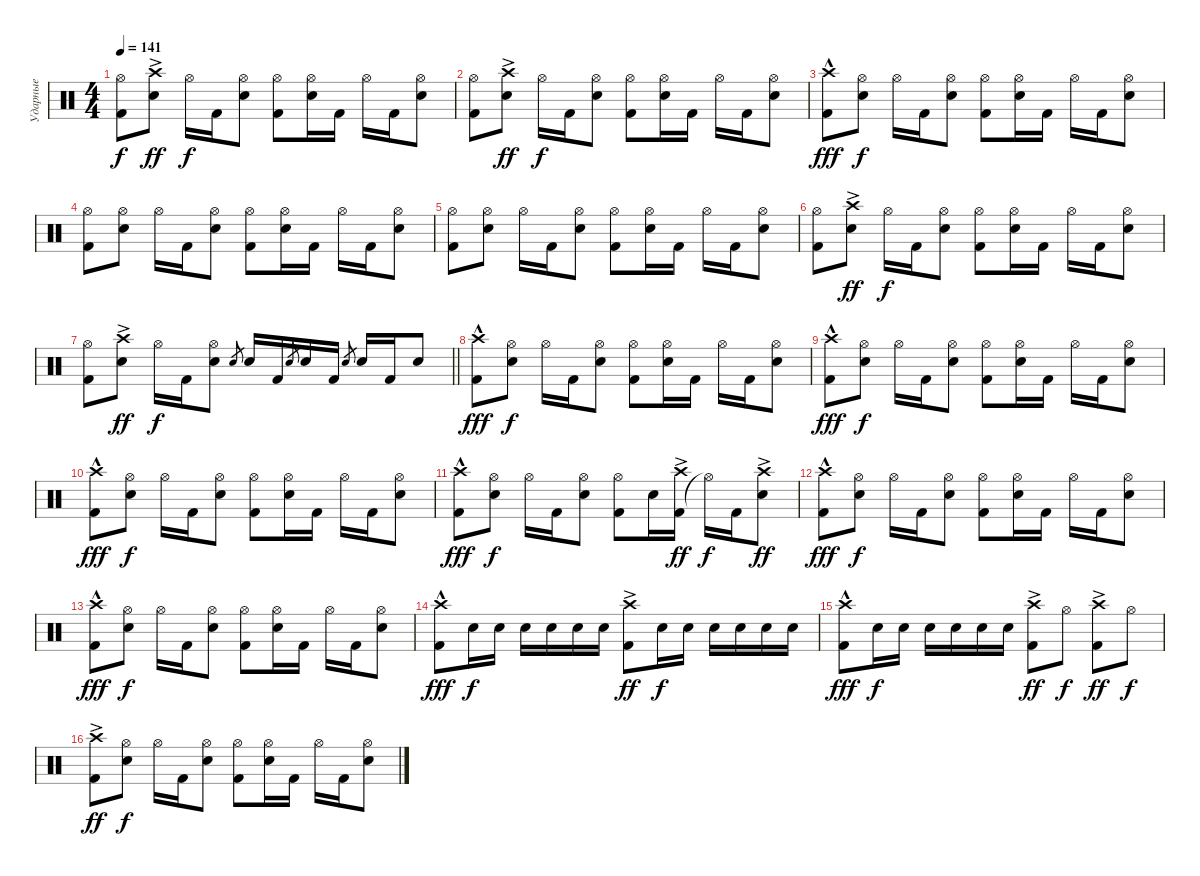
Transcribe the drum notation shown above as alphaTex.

\track ("Ударные" "Ударные") {instrument percussion}
\staff
\articulation defaults
\ts (4 4)
\tempo 141
\clef neutral
\ks c
("Kick (hit) 2" "Hi-Hat (open)").8{dy f} ("Snare (hit) 2" "Crash high (hit)"{ac}).8{dy ff} "Hi-Hat (open)".16{dy f} "Kick (hit) 2".16 ("Snare (hit) 2" "Hi-Hat (open)").8 ("Kick (hit) 2" "Hi-Hat (open)").8 ("Snare (hit) 2" "Hi-Hat (open)").16 "Kick (hit) 2".16 "Hi-Hat (open)".16 "Kick (hit) 2".16 ("Snare (hit) 2" "Hi-Hat (open)").8 |
("Kick (hit) 2" "Hi-Hat (open)").8 ("Snare (hit) 2" "Crash high (hit)"{ac}).8{dy ff} "Hi-Hat (open)".16{dy f} "Kick (hit) 2".16 ("Snare (hit) 2" "Hi-Hat (open)").8 ("Kick (hit) 2" "Hi-Hat (open)").8 ("Snare (hit) 2" "Hi-Hat (open)").16 "Kick (hit) 2".16 "Hi-Hat (open)".16 "Kick (hit) 2".16 ("Snare (hit) 2" "Hi-Hat (open)").8 |
("Kick (hit) 2" "Crash high (hit)"{hac}).8{dy fff} ("Snare (hit) 2" "Hi-Hat (open)").8{dy f} "Hi-Hat (open)".16 "Kick (hit) 2".16 ("Snare (hit) 2" "Hi-Hat (open)").8 ("Kick (hit) 2" "Hi-Hat (open)").8 ("Snare (hit) 2" "Hi-Hat (open)").16 "Kick (hit) 2".16 "Hi-Hat (open)".16 "Kick (hit) 2".16 ("Snare (hit) 2" "Hi-Hat (open)").8 |
("Kick (hit) 2" "Hi-Hat (open)").8 ("Snare (hit) 2" "Hi-Hat (open)").8 "Hi-Hat (open)".16 "Kick (hit) 2".16 ("Snare (hit) 2" "Hi-Hat (open)").8 ("Kick (hit) 2" "Hi-Hat (open)").8 ("Snare (hit) 2" "Hi-Hat (open)").16 "Kick (hit) 2".16 "Hi-Hat (open)".16 "Kick (hit) 2".16 ("Snare (hit) 2" "Hi-Hat (open)").8 |
("Kick (hit) 2" "Hi-Hat (open)").8 ("Snare (hit) 2" "Hi-Hat (open)").8 "Hi-Hat (open)".16 "Kick (hit) 2".16 ("Snare (hit) 2" "Hi-Hat (open)").8 ("Kick (hit) 2" "Hi-Hat (open)").8 ("Snare (hit) 2" "Hi-Hat (open)").16 "Kick (hit) 2".16 "Hi-Hat (open)".16 "Kick (hit) 2".16 ("Snare (hit) 2" "Hi-Hat (open)").8 |
("Kick (hit) 2" "Hi-Hat (open)").8 ("Snare (hit) 2" "Crash high (hit)"{ac}).8{dy ff} "Hi-Hat (open)".16{dy f} "Kick (hit) 2".16 ("Snare (hit) 2" "Hi-Hat (open)").8 ("Kick (hit) 2" "Hi-Hat (open)").8 ("Snare (hit) 2" "Hi-Hat (open)").16 "Kick (hit) 2".16 "Hi-Hat (open)".16 "Kick (hit) 2".16 ("Snare (hit) 2" "Hi-Hat (open)").8 |
\barLineRight lightlight
("Kick (hit) 2" "Hi-Hat (open)").8 ("Snare (hit) 2" "Crash high (hit)"{ac}).8{dy ff} "Hi-Hat (open)".16{dy f} "Kick (hit) 2".16 ("Snare (hit) 2" "Hi-Hat (open)").8 "Snare (hit) 2".8{gr} "Snare (hit) 2".16 "Kick (hit) 2".16 "Snare (hit) 2".8{gr} "Snare (hit) 2".16 "Kick (hit) 2".16 "Snare (hit) 2".8{gr} "Snare (hit) 2".16 "Kick (hit) 2".16 "Snare (hit) 2".8 |
("Kick (hit) 2" "Crash high (hit)"{hac}).8{dy fff} ("Snare (hit) 2" "Hi-Hat (open)").8{dy f} "Hi-Hat (open)".16 "Kick (hit) 2".16 ("Snare (hit) 2" "Hi-Hat (open)").8 ("Kick (hit) 2" "Hi-Hat (open)").8 ("Snare (hit) 2" "Hi-Hat (open)").16 "Kick (hit) 2".16 "Hi-Hat (open)".16 "Kick (hit) 2".16 ("Snare (hit) 2" "Hi-Hat (open)").8 |
("Kick (hit) 2" "Crash high (hit)"{hac}).8{dy fff} ("Snare (hit) 2" "Hi-Hat (open)").8{dy f} "Hi-Hat (open)".16 "Kick (hit) 2".16 ("Snare (hit) 2" "Hi-Hat (open)").8 ("Kick (hit) 2" "Hi-Hat (open)").8 ("Snare (hit) 2" "Hi-Hat (open)").16 "Kick (hit) 2".16 "Hi-Hat (open)".16 "Kick (hit) 2".16 ("Snare (hit) 2" "Hi-Hat (open)").8 |
("Kick (hit) 2" "Crash high (hit)"{hac}).8{dy fff} ("Snare (hit) 2" "Hi-Hat (open)").8{dy f} "Hi-Hat (open)".16 "Kick (hit) 2".16 ("Snare (hit) 2" "Hi-Hat (open)").8 ("Kick (hit) 2" "Hi-Hat (open)").8 ("Snare (hit) 2" "Hi-Hat (open)").16 "Kick (hit) 2".16 "Hi-Hat (open)".16 "Kick (hit) 2".16 ("Snare (hit) 2" "Hi-Hat (open)").8 |
("Kick (hit) 2" "Crash high (hit)"{hac}).8{dy fff} ("Snare (hit) 2" "Hi-Hat (open)").8{dy f} "Hi-Hat (open)".16 "Kick (hit) 2".16 ("Snare (hit) 2" "Hi-Hat (open)").8 ("Kick (hit) 2" "Hi-Hat (open)").8 "Snare (hit) 2".16 ("Kick (hit) 2" "Crash high (hit)"{ac}).16{dy ff} "Hi-Hat (open)"{t}.16{dy f} "Kick (hit) 2".16 ("Snare (hit) 2" "Crash high (hit)"{ac}).8{dy ff} |
("Kick (hit) 2" "Crash high (hit)"{hac}).8{dy fff} ("Snare (hit) 2" "Hi-Hat (open)").8{dy f} "Hi-Hat (open)".16 "Kick (hit) 2".16 ("Snare (hit) 2" "Hi-Hat (open)").8 ("Kick (hit) 2" "Hi-Hat (open)").8 ("Snare (hit) 2" "Hi-Hat (open)").16 "Kick (hit) 2".16 "Hi-Hat (open)".16 "Kick (hit) 2".16 ("Snare (hit) 2" "Hi-Hat (open)").8 |
("Kick (hit) 2" "Crash high (hit)"{hac}).8{dy fff} ("Snare (hit) 2" "Hi-Hat (open)").8{dy f} "Hi-Hat (open)".16 "Kick (hit) 2".16 ("Snare (hit) 2" "Hi-Hat (open)").8 ("Kick (hit) 2" "Hi-Hat (open)").8 ("Snare (hit) 2" "Hi-Hat (open)").16 "Kick (hit) 2".16 "Hi-Hat (open)".16 "Kick (hit) 2".16 ("Snare (hit) 2" "Hi-Hat (open)").8 |
("Kick (hit) 2" "Crash high (hit)"{hac}).8{dy fff} "Snare (hit) 2".16{dy f} "Snare (hit) 2".16 "Snare (hit) 2".16 "Snare (hit) 2".16 "Snare (hit) 2".16 "Snare (hit) 2".16 ("Kick (hit) 2" "Crash high (hit)"{ac}).8{dy ff} "Snare (hit) 2".16{dy f} "Snare (hit) 2".16 "Snare (hit) 2".16 "Snare (hit) 2".16 "Snare (hit) 2".16 "Snare (hit) 2".16 |
("Kick (hit) 2" "Crash high (hit)"{hac}).8{dy fff} "Snare (hit) 2".16{dy f} "Snare (hit) 2".16 "Snare (hit) 2".16 "Snare (hit) 2".16 "Snare (hit) 2".16 "Snare (hit) 2".16 ("Kick (hit) 2" "Crash high (hit)"{ac}).8{dy ff} "Hi-Hat (open)".8{dy f} ("Kick (hit) 2" "Crash high (hit)"{ac}).8{dy ff} "Hi-Hat (open)".8{dy f} |
("Kick (hit) 2" "Crash high (hit)"{ac}).8{dy ff} ("Snare (hit) 2" "Hi-Hat (open)").8{dy f} "Hi-Hat (open)".16 "Kick (hit) 2".16 ("Snare (hit) 2" "Hi-Hat (open)").8 ("Kick (hit) 2" "Hi-Hat (open)").8 ("Snare (hit) 2" "Hi-Hat (open)").16 "Kick (hit) 2".16 "Hi-Hat (open)".16 "Kick (hit) 2".16 ("Snare (hit) 2" "Hi-Hat (open)").8
